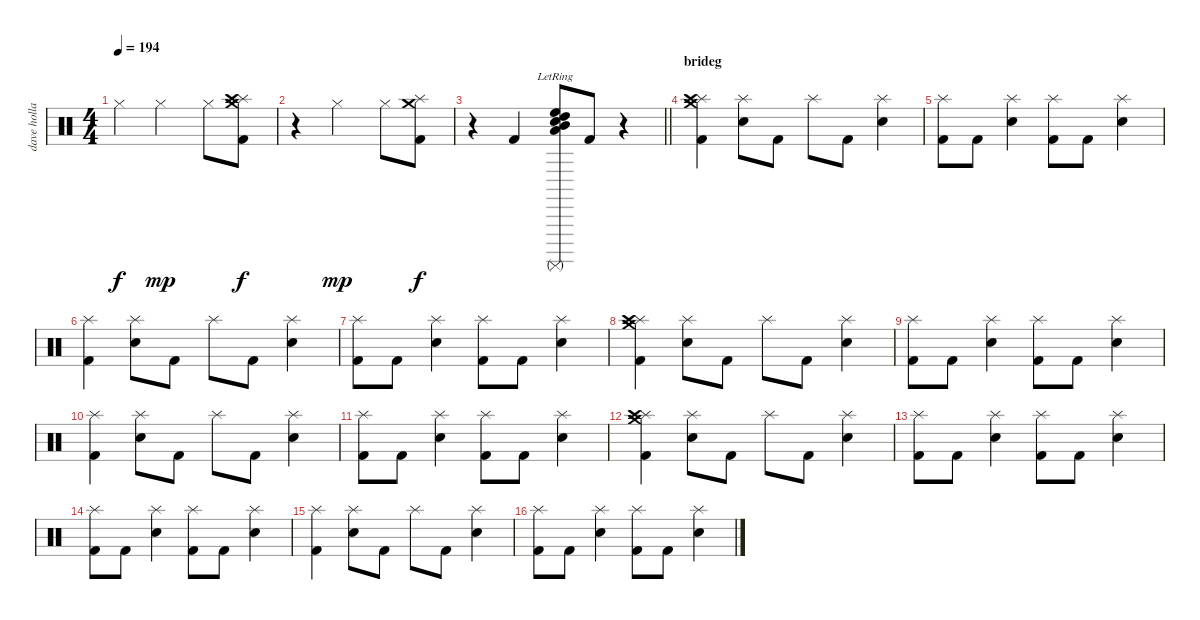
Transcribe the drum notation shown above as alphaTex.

\track ("dave holland" "dave holla") {instrument percussion}
\staff {score}
\articulation defaults
\ts (4 4)
\tempo 194
\clef neutral
\ks c "Hi-Hat (closed)"{t}.4{dy f} "Hi-Hat (closed)".2{dy mp} "Hi-Hat (closed)".8
("Crash medium (hit)" "Splash (hit)" "Crash high (hit)" "Kick (hit) 2").8{dy f} |
r.4 "Hi-Hat (closed)".2{dy mp} "Hi-Hat (closed)".8 ("Crash medium (hit)" "Splash (hit)" "Kick (hit) 2").8{dy f} |
\barLineRight lightlight
r.4 "Kick (hit) 2".4 ("Low Floor Tom (hit)"{lr} "Surdo (mute)"{lr} "Mid Tom (hit)"{lr} "High Tom (hit)"{lr} "High Floor Tom (hit)"{lr} "Snare (hit) 2"{lr}).8 "Kick (hit) 2".8 r.4 |
\section ("" "brideg")
("Crash medium (hit)" "Splash (hit)" "Crash high (hit)" "Kick (hit) 2").4 ("Splash (hit)" "Electric Snare (hit)").8 "Kick (hit) 2".8 "Splash (hit)".8 "Kick (hit) 2".8 ("Splash (hit)" "Electric Snare (hit)").4 |
("Splash (hit)" "Kick (hit) 2").8 "Kick (hit) 2".8 ("Splash (hit)" "Electric Snare (hit)").4 ("Splash (hit)" "Kick (hit) 2").8 "Kick (hit) 2".8 ("Splash (hit)" "Electric Snare (hit)").4 |
("Splash (hit)" "Kick (hit) 2").4 ("Splash (hit)" "Electric Snare (hit)").8 "Kick (hit) 2".8 "Splash (hit)".8 "Kick (hit) 2".8 ("Splash (hit)" "Electric Snare (hit)").4 |
("Splash (hit)" "Kick (hit) 2").8 "Kick (hit) 2".8 ("Splash (hit)" "Electric Snare (hit)").4 ("Splash (hit)" "Kick (hit) 2").8 "Kick (hit) 2".8 ("Splash (hit)" "Electric Snare (hit)").4 |
("Crash medium (hit)" "Splash (hit)" "Crash high (hit)" "Kick (hit) 2").4 ("Splash (hit)" "Electric Snare (hit)").8 "Kick (hit) 2".8 "Splash (hit)".8 "Kick (hit) 2".8 ("Splash (hit)" "Electric Snare (hit)").4 |
("Splash (hit)" "Kick (hit) 2").8 "Kick (hit) 2".8 ("Splash (hit)" "Electric Snare (hit)").4 ("Splash (hit)" "Kick (hit) 2").8 "Kick (hit) 2".8 ("Splash (hit)" "Electric Snare (hit)").4 |
("Splash (hit)" "Kick (hit) 2").4 ("Splash (hit)" "Electric Snare (hit)").8 "Kick (hit) 2".8 "Splash (hit)".8 "Kick (hit) 2".8 ("Splash (hit)" "Electric Snare (hit)").4 |
("Splash (hit)" "Kick (hit) 2").8 "Kick (hit) 2".8 ("Splash (hit)" "Electric Snare (hit)").4 ("Splash (hit)" "Kick (hit) 2").8 "Kick (hit) 2".8 ("Splash (hit)" "Electric Snare (hit)").4 |
("Crash medium (hit)" "Splash (hit)" "Crash high (hit)" "Kick (hit) 2").4 ("Splash (hit)" "Electric Snare (hit)").8 "Kick (hit) 2".8 "Splash (hit)".8 "Kick (hit) 2".8 ("Splash (hit)" "Electric Snare (hit)").4 |
("Splash (hit)" "Kick (hit) 2").8 "Kick (hit) 2".8 ("Splash (hit)" "Electric Snare (hit)").4 ("Splash (hit)" "Kick (hit) 2").8 "Kick (hit) 2".8 ("Splash (hit)" "Electric Snare (hit)").4 |
("Splash (hit)" "Kick (hit) 2").8 "Kick (hit) 2".8 ("Splash (hit)" "Electric Snare (hit)").4 ("Splash (hit)" "Kick (hit) 2").8 "Kick (hit) 2".8 ("Splash (hit)" "Electric Snare (hit)").4 |
("Splash (hit)" "Kick (hit) 2").4 ("Splash (hit)" "Electric Snare (hit)").8 "Kick (hit) 2".8 "Splash (hit)".8 "Kick (hit) 2".8 ("Splash (hit)" "Electric Snare (hit)").4 |
("Splash (hit)" "Kick (hit) 2").8 "Kick (hit) 2".8 ("Splash (hit)" "Electric Snare (hit)").4 ("Splash (hit)" "Kick (hit) 2").8 "Kick (hit) 2".8 ("Splash (hit)" "Electric Snare (hit)").4
